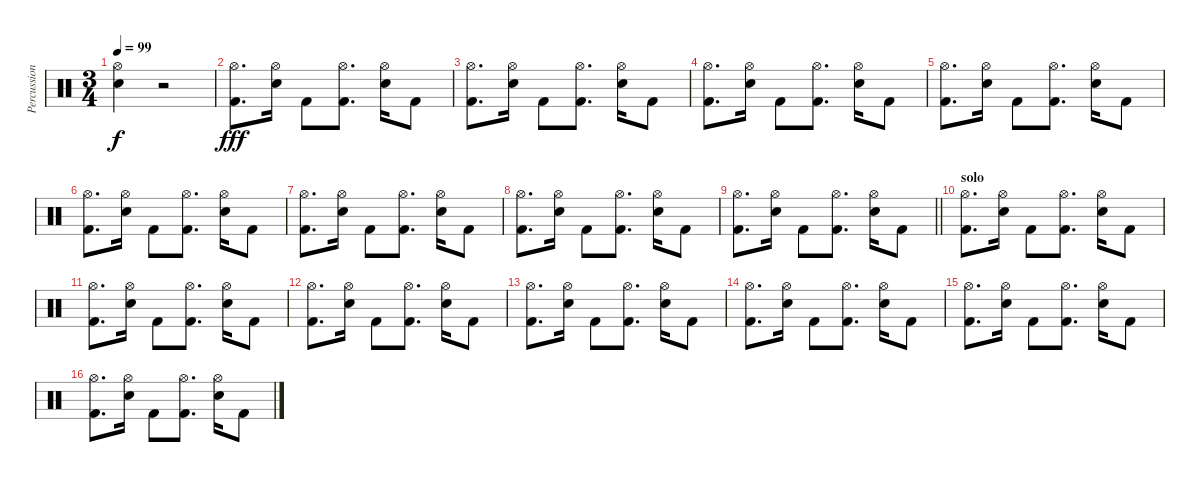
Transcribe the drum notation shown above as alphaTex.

\track ("Percussion" "Percussion") {instrument percussion}
\staff {score}
\articulation defaults
\ts (3 4)
\tempo 99
\clef neutral
\ks c
("Hi-Hat (open)" "Electric Snare (hit)").4{dy f} r.2 |
("Hi-Hat (open)" "Kick (hit) 2").8{d dy fff} ("Hi-Hat (open)" "Electric Snare (hit)").16 "Kick (hit) 2".8 ("Hi-Hat (open)" "Kick (hit) 2").8{d} ("Hi-Hat (open)" "Electric Snare (hit)").16 "Kick (hit) 2".8 |
("Hi-Hat (open)" "Kick (hit) 2").8{d} ("Hi-Hat (open)" "Electric Snare (hit)").16 "Kick (hit) 2".8 ("Hi-Hat (open)" "Kick (hit) 2").8{d} ("Hi-Hat (open)" "Electric Snare (hit)").16 "Kick (hit) 2".8 |
("Hi-Hat (open)" "Kick (hit) 2").8{d} ("Hi-Hat (open)" "Electric Snare (hit)").16 "Kick (hit) 2".8 ("Hi-Hat (open)" "Kick (hit) 2").8{d} ("Hi-Hat (open)" "Electric Snare (hit)").16 "Kick (hit) 2".8 |
("Hi-Hat (open)" "Kick (hit) 2").8{d} ("Hi-Hat (open)" "Electric Snare (hit)").16 "Kick (hit) 2".8 ("Hi-Hat (open)" "Kick (hit) 2").8{d} ("Hi-Hat (open)" "Electric Snare (hit)").16 "Kick (hit) 2".8 |
("Hi-Hat (open)" "Kick (hit) 2").8{d} ("Hi-Hat (open)" "Electric Snare (hit)").16 "Kick (hit) 2".8 ("Hi-Hat (open)" "Kick (hit) 2").8{d} ("Hi-Hat (open)" "Electric Snare (hit)").16 "Kick (hit) 2".8 |
("Hi-Hat (open)" "Kick (hit) 2").8{d} ("Hi-Hat (open)" "Electric Snare (hit)").16 "Kick (hit) 2".8 ("Hi-Hat (open)" "Kick (hit) 2").8{d} ("Hi-Hat (open)" "Electric Snare (hit)").16 "Kick (hit) 2".8 |
("Hi-Hat (open)" "Kick (hit) 2").8{d} ("Hi-Hat (open)" "Electric Snare (hit)").16 "Kick (hit) 2".8 ("Hi-Hat (open)" "Kick (hit) 2").8{d} ("Hi-Hat (open)" "Electric Snare (hit)").16 "Kick (hit) 2".8 |
\barLineRight lightlight
("Hi-Hat (open)" "Kick (hit) 2").8{d} ("Hi-Hat (open)" "Electric Snare (hit)").16 "Kick (hit) 2".8 ("Hi-Hat (open)" "Kick (hit) 2").8{d} ("Hi-Hat (open)" "Electric Snare (hit)").16 "Kick (hit) 2".8 |
\section ("" "solo")
("Hi-Hat (open)" "Kick (hit) 2").8{d} ("Hi-Hat (open)" "Electric Snare (hit)").16 "Kick (hit) 2".8 ("Hi-Hat (open)" "Kick (hit) 2").8{d} ("Hi-Hat (open)" "Electric Snare (hit)").16 "Kick (hit) 2".8 |
("Hi-Hat (open)" "Kick (hit) 2").8{d} ("Hi-Hat (open)" "Electric Snare (hit)").16 "Kick (hit) 2".8 ("Hi-Hat (open)" "Kick (hit) 2").8{d} ("Hi-Hat (open)" "Electric Snare (hit)").16 "Kick (hit) 2".8 |
("Hi-Hat (open)" "Kick (hit) 2").8{d} ("Hi-Hat (open)" "Electric Snare (hit)").16 "Kick (hit) 2".8 ("Hi-Hat (open)" "Kick (hit) 2").8{d} ("Hi-Hat (open)" "Electric Snare (hit)").16 "Kick (hit) 2".8 |
("Hi-Hat (open)" "Kick (hit) 2").8{d} ("Hi-Hat (open)" "Electric Snare (hit)").16 "Kick (hit) 2".8 ("Hi-Hat (open)" "Kick (hit) 2").8{d} ("Hi-Hat (open)" "Electric Snare (hit)").16 "Kick (hit) 2".8 |
("Hi-Hat (open)" "Kick (hit) 2").8{d} ("Hi-Hat (open)" "Electric Snare (hit)").16 "Kick (hit) 2".8 ("Hi-Hat (open)" "Kick (hit) 2").8{d} ("Hi-Hat (open)" "Electric Snare (hit)").16 "Kick (hit) 2".8 |
("Hi-Hat (open)" "Kick (hit) 2").8{d} ("Hi-Hat (open)" "Electric Snare (hit)").16 "Kick (hit) 2".8 ("Hi-Hat (open)" "Kick (hit) 2").8{d} ("Hi-Hat (open)" "Electric Snare (hit)").16 "Kick (hit) 2".8 |
("Hi-Hat (open)" "Kick (hit) 2").8{d} ("Hi-Hat (open)" "Electric Snare (hit)").16 "Kick (hit) 2".8 ("Hi-Hat (open)" "Kick (hit) 2").8{d} ("Hi-Hat (open)" "Electric Snare (hit)").16 "Kick (hit) 2".8
